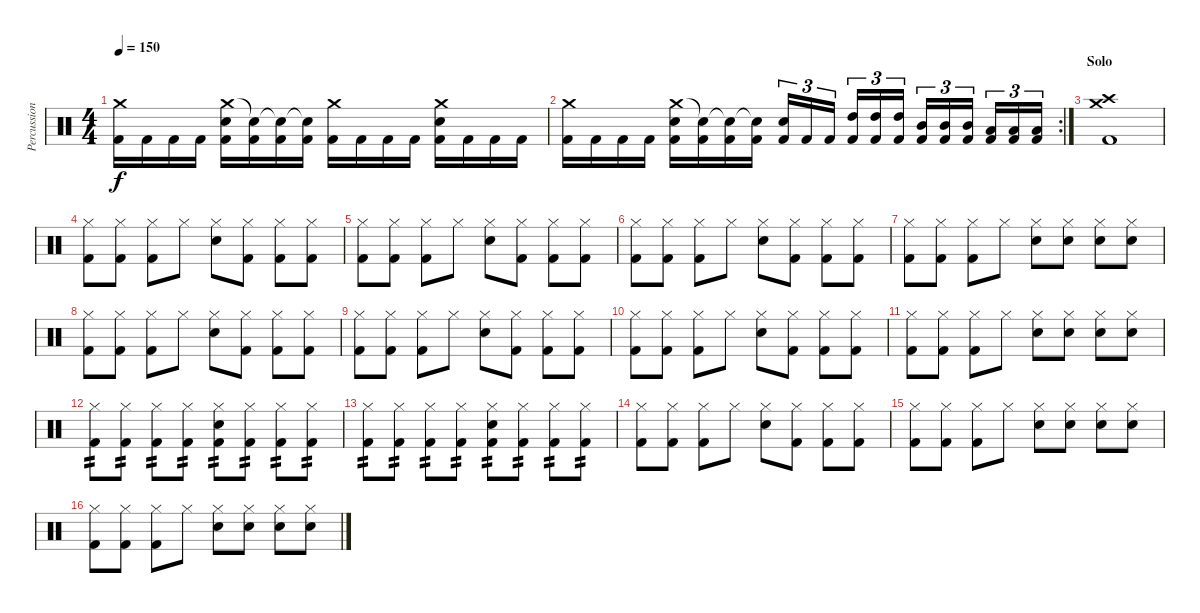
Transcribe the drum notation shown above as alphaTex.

\track ("Percussions" "Percussion") {instrument percussion}
\staff {score}
\articulation defaults
\ts (4 4)
\tempo 150
\clef neutral
\ks c
("Crash medium (hit)" "Kick (hit) 2").16{dy f} "Kick (hit) 2".16 "Kick (hit) 2".16 "Kick (hit) 2".16 ("Crash medium (hit)" "Snare (hit) 2" "Kick (hit) 2").16 ("Snare (hit)"{t} "Kick (hit) 2").16 ("Snare (hit)"{t} "Kick (hit) 2").16 ("Snare (hit)"{t} "Kick (hit) 2").16 ("Crash medium (hit)" "Kick (hit) 2").16 "Kick (hit) 2".16 "Kick (hit) 2".16 "Kick (hit) 2".16 ("Crash medium (hit)" "Snare (hit) 2" "Kick (hit) 2").16 "Kick (hit) 2".16 "Kick (hit) 2".16 "Kick (hit) 2".16 |
\rc 2
("Crash medium (hit)" "Kick (hit) 2").16 "Kick (hit) 2".16 "Kick (hit) 2".16 "Kick (hit) 2".16 ("Crash medium (hit)" "Snare (hit) 2" "Kick (hit) 2").16 ("Snare (hit)"{t} "Kick (hit) 2").16 ("Snare (hit)"{t} "Kick (hit) 2").16 ("Snare (hit)"{t} "Kick (hit) 2").16 ("Snare (hit) 2" "Kick (hit) 2").16{tu (3 2)} "Kick (hit) 2".16{tu (3 2)} "Kick (hit) 2".16{tu (3 2)} ("High Tom (hit)" "Kick (hit) 2").16{tu (3 2)} ("High Tom (hit)" "Kick (hit) 2").16{tu (3 2)} ("High Tom (hit)" "Kick (hit) 2").16{tu (3 2)} ("Mid Tom (hit)" "Kick (hit) 2").16{tu (3 2)} ("Mid Tom (hit)" "Kick (hit) 2").16{tu (3 2)} ("Mid Tom (hit)" "Kick (hit) 2").16{tu (3 2)} ("Low Tom (hit)" "Kick (hit) 2").16{tu (3 2)} ("Low Tom (hit)" "Kick (hit) 2").16{tu (3 2)} ("Low Tom (hit)" "Kick (hit) 2").16{tu (3 2)} |
\section ("" "Solo")
("Crash medium (hit)" "Crash high (hit)" "Kick (hit) 2").1 |
("Hi-Hat (closed)" "Kick (hit) 2").8 ("Hi-Hat (closed)" "Kick (hit) 2").8 ("Hi-Hat (closed)" "Kick (hit) 2").8 "Hi-Hat (closed)".8 ("Hi-Hat (closed)" "Snare (hit) 2").8 ("Hi-Hat (closed)" "Kick (hit) 2").8 ("Hi-Hat (closed)" "Kick (hit) 2").8 ("Hi-Hat (closed)" "Kick (hit) 2").8 |
("Hi-Hat (closed)" "Kick (hit) 2").8 ("Hi-Hat (closed)" "Kick (hit) 2").8 ("Hi-Hat (closed)" "Kick (hit) 2").8 "Hi-Hat (closed)".8 ("Hi-Hat (closed)" "Snare (hit) 2").8 ("Hi-Hat (closed)" "Kick (hit) 2").8 ("Hi-Hat (closed)" "Kick (hit) 2").8 ("Hi-Hat (closed)" "Kick (hit) 2").8 |
("Hi-Hat (closed)" "Kick (hit) 2").8 ("Hi-Hat (closed)" "Kick (hit) 2").8 ("Hi-Hat (closed)" "Kick (hit) 2").8 "Hi-Hat (closed)".8 ("Hi-Hat (closed)" "Snare (hit) 2").8 ("Hi-Hat (closed)" "Kick (hit) 2").8 ("Hi-Hat (closed)" "Kick (hit) 2").8 ("Hi-Hat (closed)" "Kick (hit) 2").8 |
("Hi-Hat (closed)" "Kick (hit) 2").8 ("Hi-Hat (closed)" "Kick (hit) 2").8 ("Hi-Hat (closed)" "Kick (hit) 2").8 "Hi-Hat (closed)".8 ("Hi-Hat (closed)" "Snare (hit) 2").8 ("Hi-Hat (closed)" "Snare (hit) 2").8 ("Hi-Hat (closed)" "Snare (hit) 2").8 ("Hi-Hat (closed)" "Snare (hit) 2").8 |
("Hi-Hat (closed)" "Kick (hit) 2").8 ("Hi-Hat (closed)" "Kick (hit) 2").8 ("Hi-Hat (closed)" "Kick (hit) 2").8 "Hi-Hat (closed)".8 ("Hi-Hat (closed)" "Snare (hit) 2").8 ("Hi-Hat (closed)" "Kick (hit) 2").8 ("Hi-Hat (closed)" "Kick (hit) 2").8 ("Hi-Hat (closed)" "Kick (hit) 2").8 |
("Hi-Hat (closed)" "Kick (hit) 2").8 ("Hi-Hat (closed)" "Kick (hit) 2").8 ("Hi-Hat (closed)" "Kick (hit) 2").8 "Hi-Hat (closed)".8 ("Hi-Hat (closed)" "Snare (hit) 2").8 ("Hi-Hat (closed)" "Kick (hit) 2").8 ("Hi-Hat (closed)" "Kick (hit) 2").8 ("Hi-Hat (closed)" "Kick (hit) 2").8 |
("Hi-Hat (closed)" "Kick (hit) 2").8 ("Hi-Hat (closed)" "Kick (hit) 2").8 ("Hi-Hat (closed)" "Kick (hit) 2").8 "Hi-Hat (closed)".8 ("Hi-Hat (closed)" "Snare (hit) 2").8 ("Hi-Hat (closed)" "Kick (hit) 2").8 ("Hi-Hat (closed)" "Kick (hit) 2").8 ("Hi-Hat (closed)" "Kick (hit) 2").8 |
("Hi-Hat (closed)" "Kick (hit) 2").8 ("Hi-Hat (closed)" "Kick (hit) 2").8 ("Hi-Hat (closed)" "Kick (hit) 2").8 "Hi-Hat (closed)".8 ("Hi-Hat (closed)" "Snare (hit) 2").8 ("Hi-Hat (closed)" "Snare (hit) 2").8 ("Hi-Hat (closed)" "Snare (hit) 2").8 ("Hi-Hat (closed)" "Snare (hit) 2").8 |
("Hi-Hat (closed)" "Kick (hit) 2").8{tp 2} ("Hi-Hat (closed)" "Kick (hit) 2").8{tp 2} ("Hi-Hat (closed)" "Kick (hit) 2").8{tp 2} ("Hi-Hat (closed)" "Kick (hit) 2").8{tp 2} ("Hi-Hat (closed)" "Snare (hit) 2" "Kick (hit) 2").8{tp 2} ("Hi-Hat (closed)" "Kick (hit) 2").8{tp 2} ("Hi-Hat (closed)" "Kick (hit) 2").8{tp 2} ("Hi-Hat (closed)" "Kick (hit) 2").8{tp 2} |
("Hi-Hat (closed)" "Kick (hit) 2").8{tp 2} ("Hi-Hat (closed)" "Kick (hit) 2").8{tp 2} ("Hi-Hat (closed)" "Kick (hit) 2").8{tp 2} ("Hi-Hat (closed)" "Kick (hit) 2").8{tp 2} ("Hi-Hat (closed)" "Snare (hit) 2" "Kick (hit) 2").8{tp 2} ("Hi-Hat (closed)" "Kick (hit) 2").8{tp 2} ("Hi-Hat (closed)" "Kick (hit) 2").8{tp 2} ("Hi-Hat (closed)" "Kick (hit) 2").8{tp 2} |
("Hi-Hat (closed)" "Kick (hit) 2").8 ("Hi-Hat (closed)" "Kick (hit) 2").8 ("Hi-Hat (closed)" "Kick (hit) 2").8 "Hi-Hat (closed)".8 ("Hi-Hat (closed)" "Snare (hit) 2").8 ("Hi-Hat (closed)" "Kick (hit) 2").8 ("Hi-Hat (closed)" "Kick (hit) 2").8 ("Hi-Hat (closed)" "Kick (hit) 2").8 |
("Hi-Hat (closed)" "Kick (hit) 2").8 ("Hi-Hat (closed)" "Kick (hit) 2").8 ("Hi-Hat (closed)" "Kick (hit) 2").8 "Hi-Hat (closed)".8 ("Hi-Hat (closed)" "Snare (hit) 2").8 ("Hi-Hat (closed)" "Snare (hit) 2").8 ("Hi-Hat (closed)" "Snare (hit) 2").8 ("Hi-Hat (closed)" "Snare (hit) 2").8 |
("Hi-Hat (closed)" "Kick (hit) 2").8 ("Hi-Hat (closed)" "Kick (hit) 2").8 ("Hi-Hat (closed)" "Kick (hit) 2").8 "Hi-Hat (closed)".8 ("Hi-Hat (closed)" "Snare (hit) 2").8 ("Hi-Hat (closed)" "Snare (hit) 2").8 ("Hi-Hat (closed)" "Snare (hit) 2").8 ("Hi-Hat (closed)" "Snare (hit) 2").8
